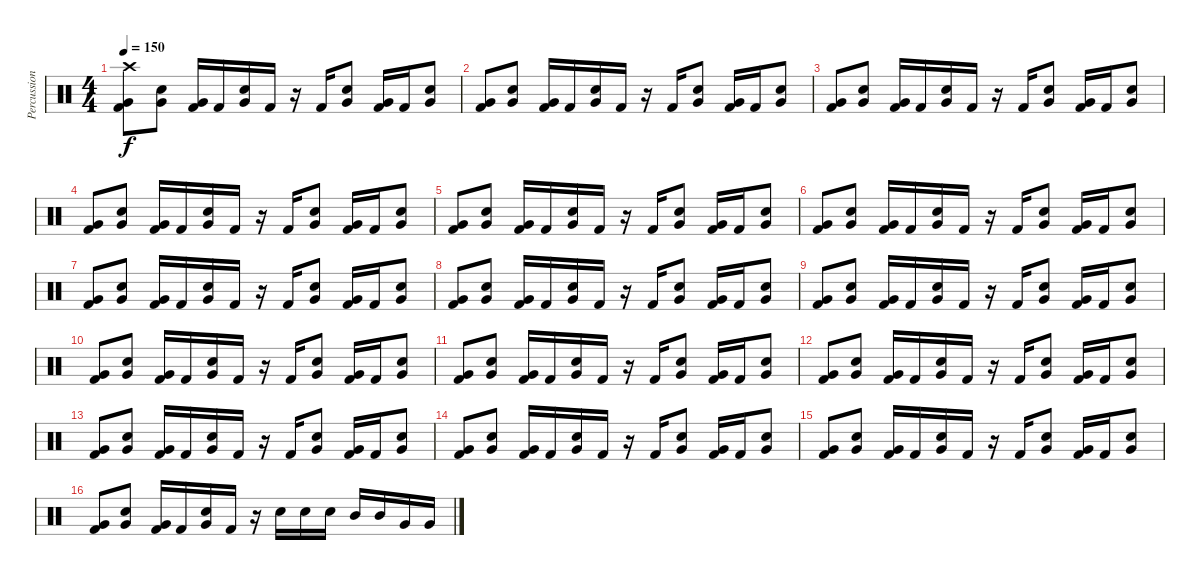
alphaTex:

\track ("Percussions" "Percussion") {instrument percussion}
\staff {score}
\articulation defaults
\ts (4 4)
\tempo 150
\clef neutral
\ks c
("Crash high (hit)" "Very Low Tom (hit)" "Kick (hit) 2").8{dy f} ("Very Low Tom (hit)" "Snare (hit) 2").8 ("Very Low Tom (hit)" "Kick (hit) 2").16 "Kick (hit) 2".16 ("Very Low Tom (hit)" "Snare (hit) 2").16 "Kick (hit) 2".16 r.16 "Kick (hit) 2".16 ("Very Low Tom (hit)" "Snare (hit) 2").8 ("Very Low Tom (hit)" "Kick (hit) 2").16 "Kick (hit) 2".16 ("Very Low Tom (hit)" "Snare (hit) 2").8 |
("Very Low Tom (hit)" "Kick (hit) 2").8 ("Very Low Tom (hit)" "Snare (hit) 2").8 ("Very Low Tom (hit)" "Kick (hit) 2").16 "Kick (hit) 2".16 ("Very Low Tom (hit)" "Snare (hit) 2").16 "Kick (hit) 2".16 r.16 "Kick (hit) 2".16 ("Very Low Tom (hit)" "Snare (hit) 2").8 ("Very Low Tom (hit)" "Kick (hit) 2").16 "Kick (hit) 2".16 ("Very Low Tom (hit)" "Snare (hit) 2").8 |
("Very Low Tom (hit)" "Kick (hit) 2").8 ("Very Low Tom (hit)" "Snare (hit) 2").8 ("Very Low Tom (hit)" "Kick (hit) 2").16 "Kick (hit) 2".16 ("Very Low Tom (hit)" "Snare (hit) 2").16 "Kick (hit) 2".16 r.16 "Kick (hit) 2".16 ("Very Low Tom (hit)" "Snare (hit) 2").8 ("Very Low Tom (hit)" "Kick (hit) 2").16 "Kick (hit) 2".16 ("Very Low Tom (hit)" "Snare (hit) 2").8 |
("Very Low Tom (hit)" "Kick (hit) 2").8 ("Very Low Tom (hit)" "Snare (hit) 2").8 ("Very Low Tom (hit)" "Kick (hit) 2").16 "Kick (hit) 2".16 ("Very Low Tom (hit)" "Snare (hit) 2").16 "Kick (hit) 2".16 r.16 "Kick (hit) 2".16 ("Very Low Tom (hit)" "Snare (hit) 2").8 ("Very Low Tom (hit)" "Kick (hit) 2").16 "Kick (hit) 2".16 ("Very Low Tom (hit)" "Snare (hit) 2").8 |
("Very Low Tom (hit)" "Kick (hit) 2").8 ("Very Low Tom (hit)" "Snare (hit) 2").8 ("Very Low Tom (hit)" "Kick (hit) 2").16 "Kick (hit) 2".16 ("Very Low Tom (hit)" "Snare (hit) 2").16 "Kick (hit) 2".16 r.16 "Kick (hit) 2".16 ("Very Low Tom (hit)" "Snare (hit) 2").8 ("Very Low Tom (hit)" "Kick (hit) 2").16 "Kick (hit) 2".16 ("Very Low Tom (hit)" "Snare (hit) 2").8 |
("Very Low Tom (hit)" "Kick (hit) 2").8 ("Very Low Tom (hit)" "Snare (hit) 2").8 ("Very Low Tom (hit)" "Kick (hit) 2").16 "Kick (hit) 2".16 ("Very Low Tom (hit)" "Snare (hit) 2").16 "Kick (hit) 2".16 r.16 "Kick (hit) 2".16 ("Very Low Tom (hit)" "Snare (hit) 2").8 ("Very Low Tom (hit)" "Kick (hit) 2").16 "Kick (hit) 2".16 ("Very Low Tom (hit)" "Snare (hit) 2").8 |
("Very Low Tom (hit)" "Kick (hit) 2").8 ("Very Low Tom (hit)" "Snare (hit) 2").8 ("Very Low Tom (hit)" "Kick (hit) 2").16 "Kick (hit) 2".16 ("Very Low Tom (hit)" "Snare (hit) 2").16 "Kick (hit) 2".16 r.16 "Kick (hit) 2".16 ("Very Low Tom (hit)" "Snare (hit) 2").8 ("Very Low Tom (hit)" "Kick (hit) 2").16 "Kick (hit) 2".16 ("Very Low Tom (hit)" "Snare (hit) 2").8 |
("Very Low Tom (hit)" "Kick (hit) 2").8 ("Very Low Tom (hit)" "Snare (hit) 2").8 ("Very Low Tom (hit)" "Kick (hit) 2").16 "Kick (hit) 2".16 ("Very Low Tom (hit)" "Snare (hit) 2").16 "Kick (hit) 2".16 r.16 "Kick (hit) 2".16 ("Very Low Tom (hit)" "Snare (hit) 2").8 ("Very Low Tom (hit)" "Kick (hit) 2").16 "Kick (hit) 2".16 ("Very Low Tom (hit)" "Snare (hit) 2").8 |
("Very Low Tom (hit)" "Kick (hit) 2").8 ("Very Low Tom (hit)" "Snare (hit) 2").8 ("Very Low Tom (hit)" "Kick (hit) 2").16 "Kick (hit) 2".16 ("Very Low Tom (hit)" "Snare (hit) 2").16 "Kick (hit) 2".16 r.16 "Kick (hit) 2".16 ("Very Low Tom (hit)" "Snare (hit) 2").8 ("Very Low Tom (hit)" "Kick (hit) 2").16 "Kick (hit) 2".16 ("Very Low Tom (hit)" "Snare (hit) 2").8 |
("Very Low Tom (hit)" "Kick (hit) 2").8 ("Very Low Tom (hit)" "Snare (hit) 2").8 ("Very Low Tom (hit)" "Kick (hit) 2").16 "Kick (hit) 2".16 ("Very Low Tom (hit)" "Snare (hit) 2").16 "Kick (hit) 2".16 r.16 "Kick (hit) 2".16 ("Very Low Tom (hit)" "Snare (hit) 2").8 ("Very Low Tom (hit)" "Kick (hit) 2").16 "Kick (hit) 2".16 ("Very Low Tom (hit)" "Snare (hit) 2").8 |
("Very Low Tom (hit)" "Kick (hit) 2").8 ("Very Low Tom (hit)" "Snare (hit) 2").8 ("Very Low Tom (hit)" "Kick (hit) 2").16 "Kick (hit) 2".16 ("Very Low Tom (hit)" "Snare (hit) 2").16 "Kick (hit) 2".16 r.16 "Kick (hit) 2".16 ("Very Low Tom (hit)" "Snare (hit) 2").8 ("Very Low Tom (hit)" "Kick (hit) 2").16 "Kick (hit) 2".16 ("Very Low Tom (hit)" "Snare (hit) 2").8 |
("Very Low Tom (hit)" "Kick (hit) 2").8 ("Very Low Tom (hit)" "Snare (hit) 2").8 ("Very Low Tom (hit)" "Kick (hit) 2").16 "Kick (hit) 2".16 ("Very Low Tom (hit)" "Snare (hit) 2").16 "Kick (hit) 2".16 r.16 "Kick (hit) 2".16 ("Very Low Tom (hit)" "Snare (hit) 2").8 ("Very Low Tom (hit)" "Kick (hit) 2").16 "Kick (hit) 2".16 ("Very Low Tom (hit)" "Snare (hit) 2").8 |
("Very Low Tom (hit)" "Kick (hit) 2").8 ("Very Low Tom (hit)" "Snare (hit) 2").8 ("Very Low Tom (hit)" "Kick (hit) 2").16 "Kick (hit) 2".16 ("Very Low Tom (hit)" "Snare (hit) 2").16 "Kick (hit) 2".16 r.16 "Kick (hit) 2".16 ("Very Low Tom (hit)" "Snare (hit) 2").8 ("Very Low Tom (hit)" "Kick (hit) 2").16 "Kick (hit) 2".16 ("Very Low Tom (hit)" "Snare (hit) 2").8 |
("Very Low Tom (hit)" "Kick (hit) 2").8 ("Very Low Tom (hit)" "Snare (hit) 2").8 ("Very Low Tom (hit)" "Kick (hit) 2").16 "Kick (hit) 2".16 ("Very Low Tom (hit)" "Snare (hit) 2").16 "Kick (hit) 2".16 r.16 "Kick (hit) 2".16 ("Very Low Tom (hit)" "Snare (hit) 2").8 ("Very Low Tom (hit)" "Kick (hit) 2").16 "Kick (hit) 2".16 ("Very Low Tom (hit)" "Snare (hit) 2").8 |
("Very Low Tom (hit)" "Kick (hit) 2").8 ("Very Low Tom (hit)" "Snare (hit) 2").8 ("Very Low Tom (hit)" "Kick (hit) 2").16 "Kick (hit) 2".16 ("Very Low Tom (hit)" "Snare (hit) 2").16 "Kick (hit) 2".16 r.16 "Kick (hit) 2".16 ("Very Low Tom (hit)" "Snare (hit) 2").8 ("Very Low Tom (hit)" "Kick (hit) 2").16 "Kick (hit) 2".16 ("Very Low Tom (hit)" "Snare (hit) 2").8 |
("Very Low Tom (hit)" "Kick (hit) 2").8 ("Very Low Tom (hit)" "Snare (hit) 2").8 ("Very Low Tom (hit)" "Kick (hit) 2").16 "Kick (hit) 2".16 ("Very Low Tom (hit)" "Snare (hit) 2").16 "Kick (hit) 2".16 r.16 "Snare (hit) 2".16 "Snare (hit) 2".16 "Snare (hit) 2".16 "Mid Tom (hit)".16 "Mid Tom (hit)".16 "Very Low Tom (hit)".16 "Very Low Tom (hit)".16
